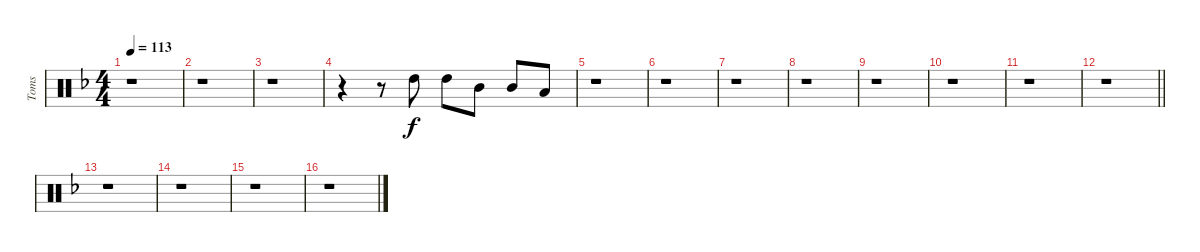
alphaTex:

\track ("Toms" "Toms") {instrument percussion}
\staff {score}
\articulation defaults
\ts (4 4)
\tempo 113
\clef neutral
\ks dminor
r.1{dy f} |
r.1 |
r.1 |
r.4 r.8 "High Tom (hit)".8 "High Tom (hit)".8 "Mid Tom (hit)".8 "Mid Tom (hit)".8 "Low Tom (hit)".8 |
r.1 |
r.1 |
r.1 |
r.1 |
r.1 |
r.1 |
r.1 |
\barLineRight lightlight
r.1 |
\section ("" "")
r.1 |
r.1 |
r.1 |
r.1
